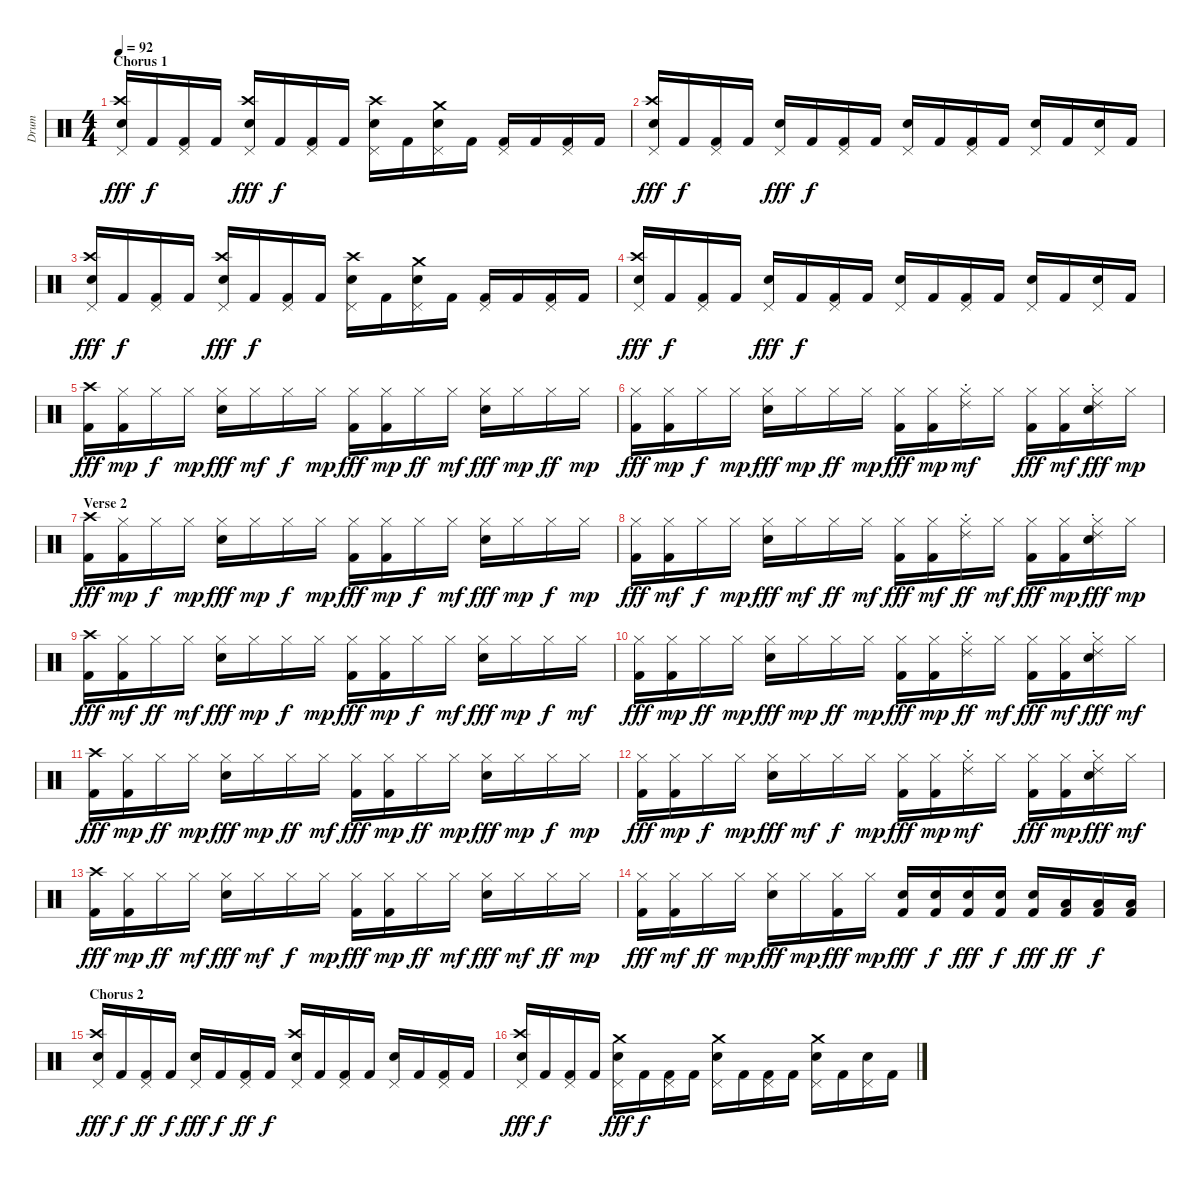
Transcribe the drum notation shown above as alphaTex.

\track ("Drum" "Drum") {instrument percussion}
\staff {score}
\articulation defaults
\ts (4 4)
\section ("" "Chorus 1")
\tempo 92
\clef neutral
\ks c
("Pedal Hi-Hat (hit)" "Crash high (hit)" "Electric Snare (hit)").16{dy fff} "Kick (hit) 2".16{dy f} ("Pedal Hi-Hat (hit)" "Kick (hit) 2").16 "Kick (hit) 2".16 ("Pedal Hi-Hat (hit)" "Crash high (hit)" "Electric Snare (hit)").16{dy fff} "Kick (hit) 2".16{dy f} ("Pedal Hi-Hat (hit)" "Kick (hit) 2").16 "Kick (hit) 2".16 ("Pedal Hi-Hat (hit)" "Crash high (hit)" "Electric Snare (hit)").16 "Kick (hit) 2".16 ("Pedal Hi-Hat (hit)" "Crash medium (hit)" "Electric Snare (hit)").16 "Kick (hit) 2".16 ("Pedal Hi-Hat (hit)" "Kick (hit) 2").16 "Kick (hit) 2".16 ("Pedal Hi-Hat (hit)" "Kick (hit) 2").16 "Kick (hit) 2".16 |
("Pedal Hi-Hat (hit)" "Crash high (hit)" "Electric Snare (hit)").16{dy fff} "Kick (hit) 2".16{dy f} ("Pedal Hi-Hat (hit)" "Kick (hit) 2").16 "Kick (hit) 2".16 ("Pedal Hi-Hat (hit)" "Electric Snare (hit)").16{dy fff} "Kick (hit) 2".16{dy f} ("Pedal Hi-Hat (hit)" "Kick (hit) 2").16 "Kick (hit) 2".16 ("Pedal Hi-Hat (hit)" "Electric Snare (hit)").16 "Kick (hit) 2".16 ("Pedal Hi-Hat (hit)" "Kick (hit) 2").16 "Kick (hit) 2".16 ("Pedal Hi-Hat (hit)" "Electric Snare (hit)").16 "Kick (hit) 2".16 ("Pedal Hi-Hat (hit)" "Electric Snare (hit)").16 "Kick (hit) 2".16 |
("Pedal Hi-Hat (hit)" "Crash high (hit)" "Electric Snare (hit)").16{dy fff} "Kick (hit) 2".16{dy f} ("Pedal Hi-Hat (hit)" "Kick (hit) 2").16 "Kick (hit) 2".16 ("Pedal Hi-Hat (hit)" "Crash high (hit)" "Electric Snare (hit)").16{dy fff} "Kick (hit) 2".16{dy f} ("Pedal Hi-Hat (hit)" "Kick (hit) 2").16 "Kick (hit) 2".16 ("Pedal Hi-Hat (hit)" "Crash high (hit)" "Electric Snare (hit)").16 "Kick (hit) 2".16 ("Pedal Hi-Hat (hit)" "Crash medium (hit)" "Electric Snare (hit)").16 "Kick (hit) 2".16 ("Pedal Hi-Hat (hit)" "Kick (hit) 2").16 "Kick (hit) 2".16 ("Pedal Hi-Hat (hit)" "Kick (hit) 2").16 "Kick (hit) 2".16 |
("Pedal Hi-Hat (hit)" "Crash high (hit)" "Electric Snare (hit)").16{dy fff} "Kick (hit) 2".16{dy f} ("Pedal Hi-Hat (hit)" "Kick (hit) 2").16 "Kick (hit) 2".16 ("Pedal Hi-Hat (hit)" "Electric Snare (hit)").16{dy fff} "Kick (hit) 2".16{dy f} ("Pedal Hi-Hat (hit)" "Kick (hit) 2").16 "Kick (hit) 2".16 ("Pedal Hi-Hat (hit)" "Electric Snare (hit)").16 "Kick (hit) 2".16 ("Pedal Hi-Hat (hit)" "Kick (hit) 2").16 "Kick (hit) 2".16 ("Pedal Hi-Hat (hit)" "Electric Snare (hit)").16 "Kick (hit) 2".16 ("Pedal Hi-Hat (hit)" "Electric Snare (hit)").16 "Kick (hit) 2".16 |
("Crash high (hit)" "Kick (hit) 2").16{dy fff} ("Hi-Hat (closed)" "Kick (hit) 2").16{dy mp} "Hi-Hat (closed)".16{dy f} "Hi-Hat (closed)".16{dy mp} ("Hi-Hat (closed)" "Electric Snare (hit)").16{dy fff} "Hi-Hat (closed)".16{dy mf} "Hi-Hat (closed)".16{dy f} "Hi-Hat (closed)".16{dy mp} ("Hi-Hat (closed)" "Kick (hit) 2").16{dy fff} ("Hi-Hat (closed)" "Kick (hit) 2").16{dy mp} "Hi-Hat (closed)".16{dy ff} "Hi-Hat (closed)".16{dy mf} ("Hi-Hat (closed)" "Electric Snare (hit)").16{dy fff} "Hi-Hat (closed)".16{dy mp} "Hi-Hat (closed)".16{dy ff} "Hi-Hat (closed)".16{dy mp} |
("Hi-Hat (closed)" "Kick (hit) 2").16{dy fff} ("Hi-Hat (closed)" "Kick (hit) 2").16{dy mp} "Hi-Hat (closed)".16{dy f} "Hi-Hat (closed)".16{dy mp} ("Hi-Hat (closed)" "Electric Snare (hit)").16{dy fff} "Hi-Hat (closed)".16{dy mp} "Hi-Hat (closed)".16{dy ff} "Hi-Hat (closed)".16{dy mp} ("Hi-Hat (closed)" "Kick (hit) 2").16{dy fff} ("Hi-Hat (closed)" "Kick (hit) 2").16{dy mp} ("Ride (choke) 2" "Hi-Hat (closed)").16{dy mf} "Hi-Hat (closed)".16 ("Hi-Hat (closed)" "Kick (hit) 2").16{dy fff} ("Hi-Hat (closed)" "Kick (hit) 2").16{dy mf} ("Ride (choke) 2" "Hi-Hat (closed)" "Electric Snare (hit)").16{dy fff} "Hi-Hat (closed)".16{dy mp} |
\section ("" "Verse 2")
("Crash high (hit)" "Kick (hit) 2").16{dy fff} ("Hi-Hat (closed)" "Kick (hit) 2").16{dy mp} "Hi-Hat (closed)".16{dy f} "Hi-Hat (closed)".16{dy mp} ("Hi-Hat (closed)" "Electric Snare (hit)").16{dy fff} "Hi-Hat (closed)".16{dy mp} "Hi-Hat (closed)".16{dy f} "Hi-Hat (closed)".16{dy mp} ("Hi-Hat (closed)" "Kick (hit) 2").16{dy fff} ("Hi-Hat (closed)" "Kick (hit) 2").16{dy mp} "Hi-Hat (closed)".16{dy f} "Hi-Hat (closed)".16{dy mf} ("Hi-Hat (closed)" "Electric Snare (hit)").16{dy fff} "Hi-Hat (closed)".16{dy mp} "Hi-Hat (closed)".16{dy f} "Hi-Hat (closed)".16{dy mp} |
("Hi-Hat (closed)" "Kick (hit) 2").16{dy fff} ("Hi-Hat (closed)" "Kick (hit) 2").16{dy mf} "Hi-Hat (closed)".16{dy f} "Hi-Hat (closed)".16{dy mp} ("Hi-Hat (closed)" "Electric Snare (hit)").16{dy fff} "Hi-Hat (closed)".16{dy mf} "Hi-Hat (closed)".16{dy ff} "Hi-Hat (closed)".16{dy mf} ("Hi-Hat (closed)" "Kick (hit) 2").16{dy fff} ("Hi-Hat (closed)" "Kick (hit) 2").16{dy mf} ("Ride (choke) 2" "Hi-Hat (closed)").16{dy ff} "Hi-Hat (closed)".16{dy mf} ("Hi-Hat (closed)" "Kick (hit) 2").16{dy fff} ("Hi-Hat (closed)" "Kick (hit) 2").16{dy mp} ("Ride (choke) 2" "Hi-Hat (closed)" "Electric Snare (hit)").16{dy fff} "Hi-Hat (closed)".16{dy mp} |
("Crash high (hit)" "Kick (hit) 2").16{dy fff} ("Hi-Hat (closed)" "Kick (hit) 2").16{dy mf} "Hi-Hat (closed)".16{dy ff} "Hi-Hat (closed)".16{dy mf} ("Hi-Hat (closed)" "Electric Snare (hit)").16{dy fff} "Hi-Hat (closed)".16{dy mp} "Hi-Hat (closed)".16{dy f} "Hi-Hat (closed)".16{dy mp} ("Hi-Hat (closed)" "Kick (hit) 2").16{dy fff} ("Hi-Hat (closed)" "Kick (hit) 2").16{dy mp} "Hi-Hat (closed)".16{dy f} "Hi-Hat (closed)".16{dy mf} ("Hi-Hat (closed)" "Electric Snare (hit)").16{dy fff} "Hi-Hat (closed)".16{dy mp} "Hi-Hat (closed)".16{dy f} "Hi-Hat (closed)".16{dy mf} |
("Hi-Hat (closed)" "Kick (hit) 2").16{dy fff} ("Hi-Hat (closed)" "Kick (hit) 2").16{dy mp} "Hi-Hat (closed)".16{dy ff} "Hi-Hat (closed)".16{dy mp} ("Hi-Hat (closed)" "Electric Snare (hit)").16{dy fff} "Hi-Hat (closed)".16{dy mp} "Hi-Hat (closed)".16{dy ff} "Hi-Hat (closed)".16{dy mp} ("Hi-Hat (closed)" "Kick (hit) 2").16{dy fff} ("Hi-Hat (closed)" "Kick (hit) 2").16{dy mp} ("Ride (choke) 2" "Hi-Hat (closed)").16{dy ff} "Hi-Hat (closed)".16{dy mf} ("Hi-Hat (closed)" "Kick (hit) 2").16{dy fff} ("Hi-Hat (closed)" "Kick (hit) 2").16{dy mf} ("Ride (choke) 2" "Hi-Hat (closed)" "Electric Snare (hit)").16{dy fff} "Hi-Hat (closed)".16{dy mf} |
("Crash high (hit)" "Kick (hit) 2").16{dy fff} ("Hi-Hat (closed)" "Kick (hit) 2").16{dy mp} "Hi-Hat (closed)".16{dy ff} "Hi-Hat (closed)".16{dy mp} ("Hi-Hat (closed)" "Electric Snare (hit)").16{dy fff} "Hi-Hat (closed)".16{dy mp} "Hi-Hat (closed)".16{dy ff} "Hi-Hat (closed)".16{dy mf} ("Hi-Hat (closed)" "Kick (hit) 2").16{dy fff} ("Hi-Hat (closed)" "Kick (hit) 2").16{dy mp} "Hi-Hat (closed)".16{dy ff} "Hi-Hat (closed)".16{dy mp} ("Hi-Hat (closed)" "Electric Snare (hit)").16{dy fff} "Hi-Hat (closed)".16{dy mp} "Hi-Hat (closed)".16{dy f} "Hi-Hat (closed)".16{dy mp} |
("Hi-Hat (closed)" "Kick (hit) 2").16{dy fff} ("Hi-Hat (closed)" "Kick (hit) 2").16{dy mp} "Hi-Hat (closed)".16{dy f} "Hi-Hat (closed)".16{dy mp} ("Hi-Hat (closed)" "Electric Snare (hit)").16{dy fff} "Hi-Hat (closed)".16{dy mf} "Hi-Hat (closed)".16{dy f} "Hi-Hat (closed)".16{dy mp} ("Hi-Hat (closed)" "Kick (hit) 2").16{dy fff} ("Hi-Hat (closed)" "Kick (hit) 2").16{dy mp} ("Ride (choke) 2" "Hi-Hat (closed)").16{dy mf} "Hi-Hat (closed)".16 ("Hi-Hat (closed)" "Kick (hit) 2").16{dy fff} ("Hi-Hat (closed)" "Kick (hit) 2").16{dy mp} ("Ride (choke) 2" "Hi-Hat (closed)" "Electric Snare (hit)").16{dy fff} "Hi-Hat (closed)".16{dy mf} |
("Crash high (hit)" "Kick (hit) 2").16{dy fff} ("Hi-Hat (closed)" "Kick (hit) 2").16{dy mp} "Hi-Hat (closed)".16{dy ff} "Hi-Hat (closed)".16{dy mf} ("Hi-Hat (closed)" "Electric Snare (hit)").16{dy fff} "Hi-Hat (closed)".16{dy mf} "Hi-Hat (closed)".16{dy f} "Hi-Hat (closed)".16{dy mp} ("Hi-Hat (closed)" "Kick (hit) 2").16{dy fff} ("Hi-Hat (closed)" "Kick (hit) 2").16{dy mp} "Hi-Hat (closed)".16{dy ff} "Hi-Hat (closed)".16{dy mf} ("Hi-Hat (closed)" "Electric Snare (hit)").16{dy fff} "Hi-Hat (closed)".16{dy mf} "Hi-Hat (closed)".16{dy ff} "Hi-Hat (closed)".16{dy mp} |
("Hi-Hat (closed)" "Kick (hit) 2").16{dy fff} ("Hi-Hat (closed)" "Kick (hit) 2").16{dy mf} "Hi-Hat (closed)".16{dy ff} "Hi-Hat (closed)".16{dy mp} ("Hi-Hat (closed)" "Electric Snare (hit)").16{dy fff} "Hi-Hat (closed)".16{dy mp} ("Hi-Hat (closed)" "Kick (hit) 2").16{dy fff} "Hi-Hat (closed)".16{dy mp} ("Electric Snare (hit)" "Kick (hit) 2").16{dy fff} ("Electric Snare (hit)" "Kick (hit) 2").16{dy f} ("Electric Snare (hit)" "Kick (hit) 2").16{dy fff} ("Electric Snare (hit)" "Kick (hit) 2").16{dy f} ("Electric Snare (hit)" "Kick (hit) 2").16{dy fff} ("Low Tom (hit)" "Kick (hit) 2").16{dy ff} ("Low Tom (hit)" "Kick (hit) 2").16{dy f} ("Low Floor Tom (hit)" "Kick (hit) 2").16 |
\section ("" "Chorus 2")
("Pedal Hi-Hat (hit)" "Crash high (hit)" "Electric Snare (hit)").16{dy fff} "Kick (hit) 2".16{dy f} ("Pedal Hi-Hat (hit)" "Kick (hit) 2").16{dy ff} "Kick (hit) 2".16{dy f} ("Pedal Hi-Hat (hit)" "Electric Snare (hit)").16{dy fff} "Kick (hit) 2".16{dy f} ("Pedal Hi-Hat (hit)" "Kick (hit) 2").16{dy ff} "Kick (hit) 2".16{dy f} ("Pedal Hi-Hat (hit)" "Crash high (hit)" "Electric Snare (hit)").16 "Kick (hit) 2".16 ("Pedal Hi-Hat (hit)" "Kick (hit) 2").16 "Kick (hit) 2".16 ("Pedal Hi-Hat (hit)" "Electric Snare (hit)").16 "Kick (hit) 2".16 ("Pedal Hi-Hat (hit)" "Kick (hit) 2").16 "Kick (hit) 2".16 |
("Pedal Hi-Hat (hit)" "Crash high (hit)" "Electric Snare (hit)").16{dy fff} "Kick (hit) 2".16{dy f} ("Pedal Hi-Hat (hit)" "Kick (hit) 2").16 "Kick (hit) 2".16 ("Pedal Hi-Hat (hit)" "Crash medium (hit)" "Electric Snare (hit)").16{dy fff} "Kick (hit) 2".16{dy f} ("Pedal Hi-Hat (hit)" "Kick (hit) 2").16 "Kick (hit) 2".16 ("Pedal Hi-Hat (hit)" "Crash medium (hit)" "Electric Snare (hit)").16 "Kick (hit) 2".16 ("Pedal Hi-Hat (hit)" "Kick (hit) 2").16 "Kick (hit) 2".16 ("Pedal Hi-Hat (hit)" "Crash medium (hit)" "Electric Snare (hit)").16 "Kick (hit) 2".16 ("Pedal Hi-Hat (hit)" "Electric Snare (hit)").16 "Kick (hit) 2".16
